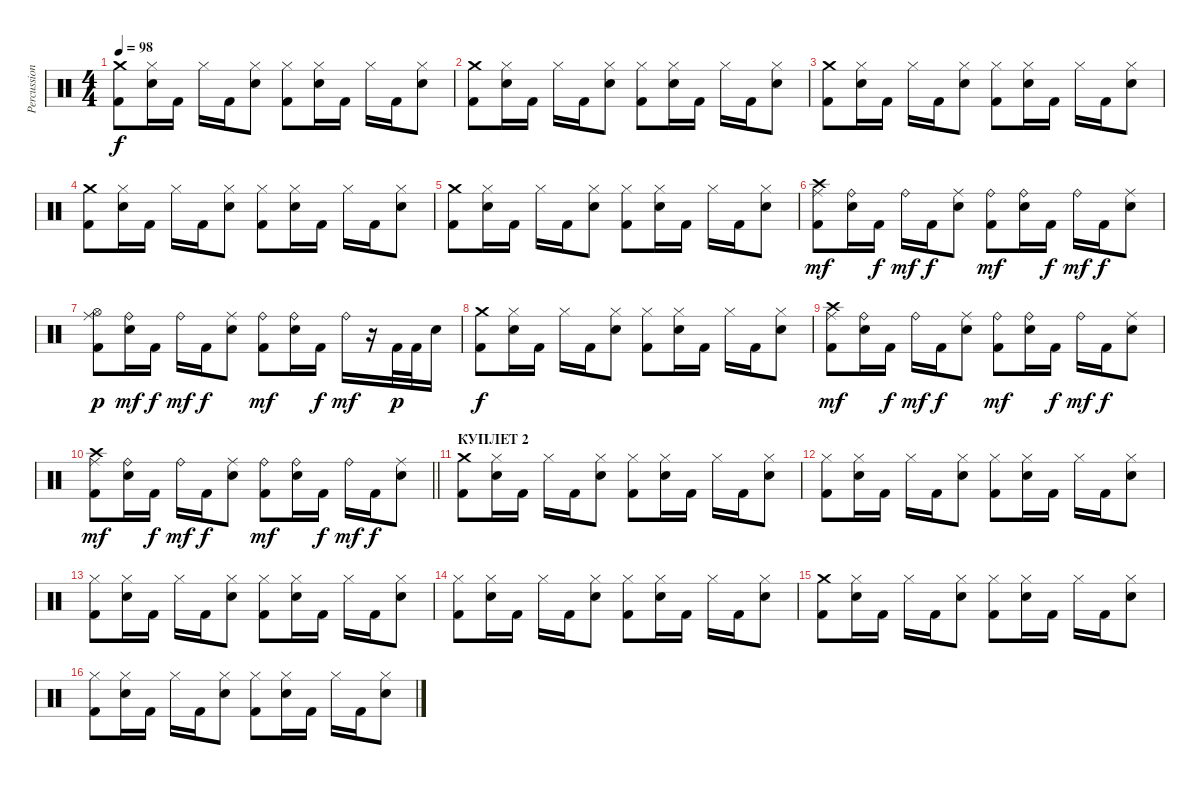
\track ("Percussion" "Percussion") {instrument percussion}
\staff {score}
\articulation defaults
\ts (4 4)
\tempo 98
\clef neutral
\ks c
("Crash medium (hit)" "Kick (hit) 2").8{dy f} ("Hi-Hat (closed)" "Electric Snare (hit)").16 "Kick (hit) 2".16 "Hi-Hat (closed)".16 "Kick (hit) 2".16 ("Hi-Hat (closed)" "Electric Snare (hit)").8 ("Hi-Hat (closed)" "Kick (hit) 2").8 ("Hi-Hat (closed)" "Electric Snare (hit)").16 "Kick (hit) 2".16 "Hi-Hat (closed)".16 "Kick (hit) 2".16 ("Hi-Hat (closed)" "Electric Snare (hit)").8 |
("Crash medium (hit)" "Kick (hit) 2").8 ("Hi-Hat (closed)" "Electric Snare (hit)").16 "Kick (hit) 2".16 "Hi-Hat (closed)".16 "Kick (hit) 2".16 ("Hi-Hat (closed)" "Electric Snare (hit)").8 ("Hi-Hat (closed)" "Kick (hit) 2").8 ("Hi-Hat (closed)" "Electric Snare (hit)").16 "Kick (hit) 2".16 "Hi-Hat (closed)".16 "Kick (hit) 2".16 ("Hi-Hat (closed)" "Electric Snare (hit)").8 |
("Crash medium (hit)" "Kick (hit) 2").8 ("Hi-Hat (closed)" "Electric Snare (hit)").16 "Kick (hit) 2".16 "Hi-Hat (closed)".16 "Kick (hit) 2".16 ("Hi-Hat (closed)" "Electric Snare (hit)").8 ("Hi-Hat (closed)" "Kick (hit) 2").8 ("Hi-Hat (closed)" "Electric Snare (hit)").16 "Kick (hit) 2".16 "Hi-Hat (closed)".16 "Kick (hit) 2".16 ("Hi-Hat (closed)" "Electric Snare (hit)").8 |
("Crash medium (hit)" "Kick (hit) 2").8 ("Hi-Hat (closed)" "Electric Snare (hit)").16 "Kick (hit) 2".16 "Hi-Hat (closed)".16 "Kick (hit) 2".16 ("Hi-Hat (closed)" "Electric Snare (hit)").8 ("Hi-Hat (closed)" "Kick (hit) 2").8 ("Hi-Hat (closed)" "Electric Snare (hit)").16 "Kick (hit) 2".16 "Hi-Hat (closed)".16 "Kick (hit) 2".16 ("Hi-Hat (closed)" "Electric Snare (hit)").8 |
("Crash medium (hit)" "Kick (hit) 2").8 ("Hi-Hat (closed)" "Electric Snare (hit)").16 "Kick (hit) 2".16 "Hi-Hat (closed)".16 "Kick (hit) 2".16 ("Hi-Hat (closed)" "Electric Snare (hit)").8 ("Hi-Hat (closed)" "Kick (hit) 2").8 ("Hi-Hat (closed)" "Electric Snare (hit)").16 "Kick (hit) 2".16 "Hi-Hat (closed)".16 "Kick (hit) 2".16 ("Hi-Hat (closed)" "Electric Snare (hit)").8 |
("Crash high (hit)" "Kick (hit) 2" "Ride (middle)").8{dy mf} ("Ride (bell)" "Electric Snare (hit)").16 "Kick (hit) 2".16{dy f} "Ride (bell)".16{dy mf} "Kick (hit) 2".16{dy f} ("Ride (middle)" "Electric Snare (hit)").8 ("Ride (bell)" "Kick (hit) 2").8{dy mf} ("Ride (bell)" "Electric Snare (hit)").16 "Kick (hit) 2".16{dy f} "Ride (bell)".16{dy mf} "Kick (hit) 2".16{dy f} ("Ride (middle)" "Electric Snare (hit)").8 |
("Kick (hit) 2" "Ride (middle)" "Hi-Hat (open)").8{dy p} ("Ride (bell)" "Electric Snare (hit)").16{dy mf} "Kick (hit) 2".16{dy f} "Ride (bell)".16{dy mf} "Kick (hit) 2".16{dy f} ("Ride (middle)" "Electric Snare (hit)").8 ("Ride (bell)" "Kick (hit) 2").8{dy mf} ("Ride (bell)" "Electric Snare (hit)").16 "Kick (hit) 2".16{dy f} "Ride (bell)".16{dy mf} r.16 "Kick (hit) 2".32{dy p} "Kick (hit) 2".32 "Electric Snare (hit)".16 |
("Crash medium (hit)" "Kick (hit) 2").8{dy f} ("Hi-Hat (closed)" "Electric Snare (hit)").16 "Kick (hit) 2".16 "Hi-Hat (closed)".16 "Kick (hit) 2".16 ("Hi-Hat (closed)" "Electric Snare (hit)").8 ("Hi-Hat (closed)" "Kick (hit) 2").8 ("Hi-Hat (closed)" "Electric Snare (hit)").16 "Kick (hit) 2".16 "Hi-Hat (closed)".16 "Kick (hit) 2".16 ("Hi-Hat (closed)" "Electric Snare (hit)").8 |
("Crash high (hit)" "Kick (hit) 2" "Ride (middle)").8{dy mf} ("Ride (bell)" "Electric Snare (hit)").16 "Kick (hit) 2".16{dy f} "Ride (bell)".16{dy mf} "Kick (hit) 2".16{dy f} ("Ride (middle)" "Electric Snare (hit)").8 ("Ride (bell)" "Kick (hit) 2").8{dy mf} ("Ride (bell)" "Electric Snare (hit)").16 "Kick (hit) 2".16{dy f} "Ride (bell)".16{dy mf} "Kick (hit) 2".16{dy f} ("Ride (middle)" "Electric Snare (hit)").8 |
\barLineRight lightlight
("Crash high (hit)" "Kick (hit) 2" "Ride (middle)").8{dy mf} ("Ride (bell)" "Electric Snare (hit)").16 "Kick (hit) 2".16{dy f} "Ride (bell)".16{dy mf} "Kick (hit) 2".16{dy f} ("Ride (middle)" "Electric Snare (hit)").8 ("Ride (bell)" "Kick (hit) 2").8{dy mf} ("Ride (bell)" "Electric Snare (hit)").16 "Kick (hit) 2".16{dy f} "Ride (bell)".16{dy mf} "Kick (hit) 2".16{dy f} ("Ride (middle)" "Electric Snare (hit)").8 |
\section ("" "КУПЛЕТ 2")
("Crash medium (hit)" "Kick (hit) 2").8 ("Hi-Hat (closed)" "Electric Snare (hit)").16 "Kick (hit) 2".16 "Hi-Hat (closed)".16 "Kick (hit) 2".16 ("Hi-Hat (closed)" "Electric Snare (hit)").8 ("Hi-Hat (closed)" "Kick (hit) 2").8 ("Hi-Hat (closed)" "Electric Snare (hit)").16 "Kick (hit) 2".16 "Hi-Hat (closed)".16 "Kick (hit) 2".16 ("Hi-Hat (closed)" "Electric Snare (hit)").8 |
("Hi-Hat (closed)" "Kick (hit) 2").8 ("Hi-Hat (closed)" "Electric Snare (hit)").16 "Kick (hit) 2".16 "Hi-Hat (closed)".16 "Kick (hit) 2".16 ("Hi-Hat (closed)" "Electric Snare (hit)").8 ("Hi-Hat (closed)" "Kick (hit) 2").8 ("Hi-Hat (closed)" "Electric Snare (hit)").16 "Kick (hit) 2".16 "Hi-Hat (closed)".16 "Kick (hit) 2".16 ("Hi-Hat (closed)" "Electric Snare (hit)").8 |
("Hi-Hat (closed)" "Kick (hit) 2").8 ("Hi-Hat (closed)" "Electric Snare (hit)").16 "Kick (hit) 2".16 "Hi-Hat (closed)".16 "Kick (hit) 2".16 ("Hi-Hat (closed)" "Electric Snare (hit)").8 ("Hi-Hat (closed)" "Kick (hit) 2").8 ("Hi-Hat (closed)" "Electric Snare (hit)").16 "Kick (hit) 2".16 "Hi-Hat (closed)".16 "Kick (hit) 2".16 ("Hi-Hat (closed)" "Electric Snare (hit)").8 |
("Hi-Hat (closed)" "Kick (hit) 2").8 ("Hi-Hat (closed)" "Electric Snare (hit)").16 "Kick (hit) 2".16 "Hi-Hat (closed)".16 "Kick (hit) 2".16 ("Hi-Hat (closed)" "Electric Snare (hit)").8 ("Hi-Hat (closed)" "Kick (hit) 2").8 ("Hi-Hat (closed)" "Electric Snare (hit)").16 "Kick (hit) 2".16 "Hi-Hat (closed)".16 "Kick (hit) 2".16 ("Hi-Hat (closed)" "Electric Snare (hit)").8 |
("Crash medium (hit)" "Kick (hit) 2").8 ("Hi-Hat (closed)" "Electric Snare (hit)").16 "Kick (hit) 2".16 "Hi-Hat (closed)".16 "Kick (hit) 2".16 ("Hi-Hat (closed)" "Electric Snare (hit)").8 ("Hi-Hat (closed)" "Kick (hit) 2").8 ("Hi-Hat (closed)" "Electric Snare (hit)").16 "Kick (hit) 2".16 "Hi-Hat (closed)".16 "Kick (hit) 2".16 ("Hi-Hat (closed)" "Electric Snare (hit)").8 |
("Hi-Hat (closed)" "Kick (hit) 2").8 ("Hi-Hat (closed)" "Electric Snare (hit)").16 "Kick (hit) 2".16 "Hi-Hat (closed)".16 "Kick (hit) 2".16 ("Hi-Hat (closed)" "Electric Snare (hit)").8 ("Hi-Hat (closed)" "Kick (hit) 2").8 ("Hi-Hat (closed)" "Electric Snare (hit)").16 "Kick (hit) 2".16 "Hi-Hat (closed)".16 "Kick (hit) 2".16 ("Hi-Hat (closed)" "Electric Snare (hit)").8
